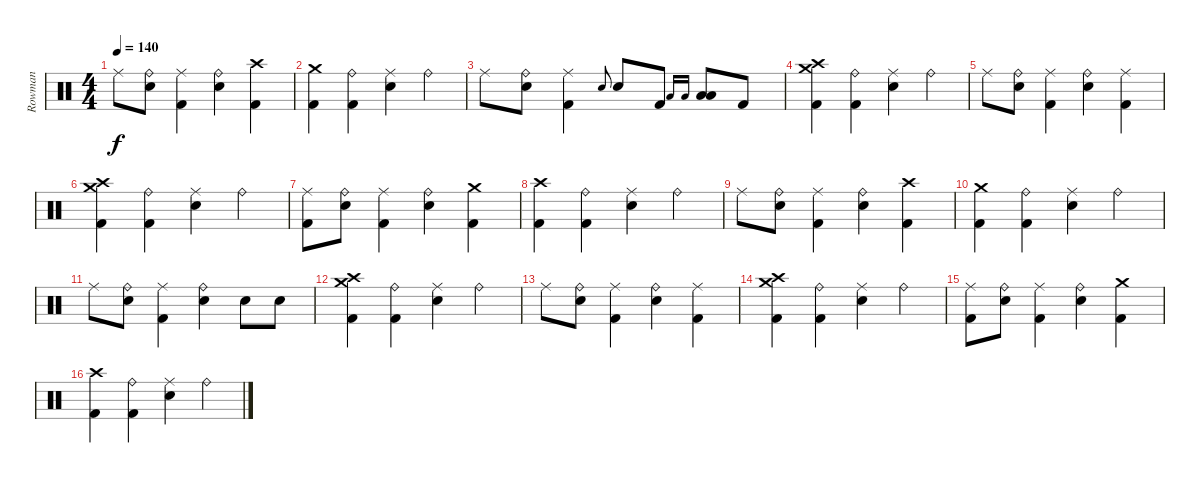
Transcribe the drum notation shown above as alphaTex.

\track ("Rowman" "Rowman") {instrument percussion}
\staff {score}
\articulation defaults
\ts (4 4)
\tempo 140
\clef neutral
\ks c "Ride (middle)".8{dy f}
("Ride (bell)" "Snare (hit) 2").8 ("Ride (middle)" "Kick (hit) 2").4 ("Ride (bell)" "Snare (hit) 2").4 ("Crash high (hit)" "Kick (hit) 2").4 |
("Crash medium (hit)" "Kick (hit) 2").4 ("Ride (bell)" "Kick (hit) 2").4 ("Ride (middle)" "Snare (hit) 2").4 "Ride (bell)".4 |
"Ride (middle)".8 ("Ride (bell)" "Snare (hit) 2").8 ("Ride (middle)" "Kick (hit) 2").4 "Snare (hit) 2".8{gr onbeat} "Snare (hit) 2".8 "Kick (hit) 2".8 "Low Floor Tom (hit)".16{gr onbeat} "Low Tom (hit)".16{gr onbeat} ("Low Floor Tom (hit)" "Low Tom (hit)").8 "Kick (hit) 2".8 |
("Crash high (hit)" "Crash medium (hit)" "Kick (hit) 2").4 ("Ride (bell)" "Kick (hit) 2").4 ("Ride (middle)" "Snare (hit) 2").4 "Ride (bell)".4 |
"Ride (middle)".8 ("Ride (bell)" "Snare (hit) 2").8 ("Ride (middle)" "Kick (hit) 2").4 ("Ride (bell)" "Snare (hit) 2").4 ("Ride (middle)" "Kick (hit) 2").4 |
("Crash high (hit)" "Crash medium (hit)" "Kick (hit) 2").4 ("Ride (bell)" "Kick (hit) 2").4 ("Ride (middle)" "Snare (hit) 2").4 "Ride (bell)".4 |
("Ride (middle)" "Kick (hit) 2").8 ("Ride (bell)" "Snare (hit) 2").8 ("Ride (middle)" "Kick (hit) 2").4 ("Ride (bell)" "Snare (hit) 2").4 ("Crash medium (hit)" "Kick (hit) 2").4 |
("Crash high (hit)" "Kick (hit) 2").4 ("Ride (bell)" "Kick (hit) 2").4 ("Ride (middle)" "Snare (hit) 2").4 "Ride (bell)".4 |
"Ride (middle)".8 ("Ride (bell)" "Snare (hit) 2").8 ("Ride (middle)" "Kick (hit) 2").4 ("Ride (bell)" "Snare (hit) 2").4 ("Crash high (hit)" "Kick (hit) 2").4 |
("Crash medium (hit)" "Kick (hit) 2").4 ("Ride (bell)" "Kick (hit) 2").4 ("Ride (middle)" "Snare (hit) 2").4 "Ride (bell)".4 |
"Ride (middle)".8 ("Ride (bell)" "Snare (hit) 2").8 ("Ride (middle)" "Kick (hit) 2").4 ("Ride (bell)" "Snare (hit) 2").4 "Snare (hit) 2".8 "Snare (hit) 2".8 |
("Crash high (hit)" "Crash medium (hit)" "Kick (hit) 2").4 ("Ride (bell)" "Kick (hit) 2").4 ("Ride (middle)" "Snare (hit) 2").4 "Ride (bell)".4 |
"Ride (middle)".8 ("Ride (bell)" "Snare (hit) 2").8 ("Ride (middle)" "Kick (hit) 2").4 ("Ride (bell)" "Snare (hit) 2").4 ("Ride (middle)" "Kick (hit) 2").4 |
("Crash high (hit)" "Crash medium (hit)" "Kick (hit) 2").4 ("Ride (bell)" "Kick (hit) 2").4 ("Ride (middle)" "Snare (hit) 2").4 "Ride (bell)".4 |
("Ride (middle)" "Kick (hit) 2").8 ("Ride (bell)" "Snare (hit) 2").8 ("Ride (middle)" "Kick (hit) 2").4 ("Ride (bell)" "Snare (hit) 2").4 ("Crash medium (hit)" "Kick (hit) 2").4 |
("Crash high (hit)" "Kick (hit) 2").4 ("Ride (bell)" "Kick (hit) 2").4 ("Ride (middle)" "Snare (hit) 2").4 "Ride (bell)".4
